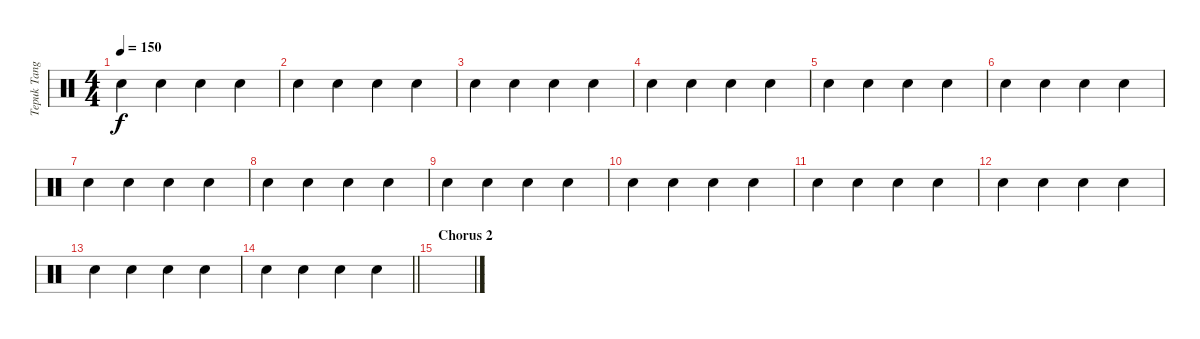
\track ("Tepuk Tangan" "Tepuk Tang") {instrument percussion}
\staff {score}
\articulation defaults
\ts (4 4)
\tempo 150
\clef neutral
\ks c "Hand Clap (hit)".4{dy f} "Hand Clap (hit)".4 "Hand Clap (hit)".4 "Hand Clap (hit)".4
|
"Hand Clap (hit)".4 "Hand Clap (hit)".4 "Hand Clap (hit)".4 "Hand Clap (hit)".4 |
"Hand Clap (hit)".4 "Hand Clap (hit)".4 "Hand Clap (hit)".4 "Hand Clap (hit)".4 |
"Hand Clap (hit)".4 "Hand Clap (hit)".4 "Hand Clap (hit)".4 "Hand Clap (hit)".4 |
"Hand Clap (hit)".4 "Hand Clap (hit)".4 "Hand Clap (hit)".4 "Hand Clap (hit)".4 |
"Hand Clap (hit)".4 "Hand Clap (hit)".4 "Hand Clap (hit)".4 "Hand Clap (hit)".4 |
"Hand Clap (hit)".4 "Hand Clap (hit)".4 "Hand Clap (hit)".4 "Hand Clap (hit)".4 |
"Hand Clap (hit)".4 "Hand Clap (hit)".4 "Hand Clap (hit)".4 "Hand Clap (hit)".4 |
"Hand Clap (hit)".4 "Hand Clap (hit)".4 "Hand Clap (hit)".4 "Hand Clap (hit)".4 |
"Hand Clap (hit)".4 "Hand Clap (hit)".4 "Hand Clap (hit)".4 "Hand Clap (hit)".4 |
"Hand Clap (hit)".4 "Hand Clap (hit)".4 "Hand Clap (hit)".4 "Hand Clap (hit)".4 |
"Hand Clap (hit)".4 "Hand Clap (hit)".4 "Hand Clap (hit)".4 "Hand Clap (hit)".4 |
"Hand Clap (hit)".4 "Hand Clap (hit)".4 "Hand Clap (hit)".4 "Hand Clap (hit)".4 |
\barLineRight lightlight "Hand Clap (hit)".4 "Hand Clap (hit)".4 "Hand Clap (hit)".4 "Hand Clap (hit)".4
|
\section ("" "Chorus 2")
